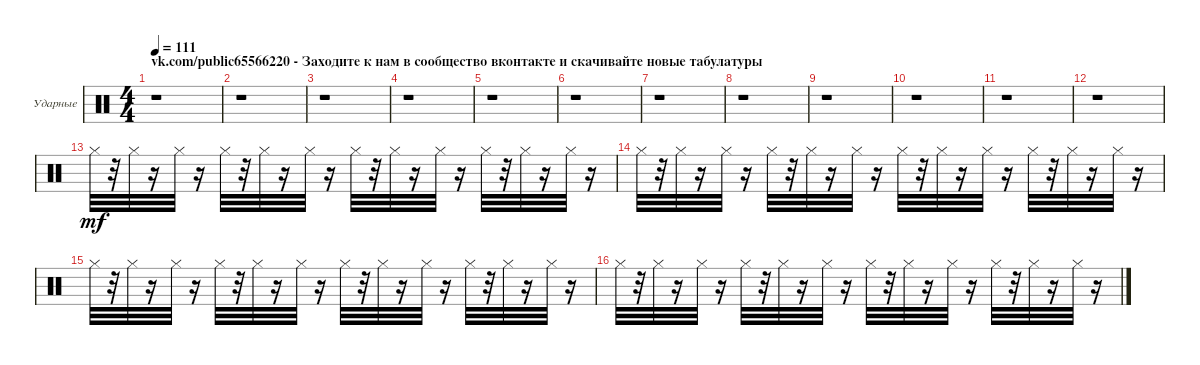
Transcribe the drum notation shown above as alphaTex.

\bracketExtendMode groupsimilarinstruments
\firstSystemTrackNameOrientation horizontal
\otherSystemsTrackNameOrientation horizontal
\track ("Ударные" "Ударные") {instrument percussion}
\staff {score}
\articulation defaults
\ts (4 4)
\section ("" "vk.com/public65566220 - Заходите к нам в сообщество вконтакте и скачивайте новые табулатуры")
\tempo 111
\clef neutral
\ks c
r.1{dy mf} |
r.1 |
r.1 |
r.1 |
r.1 |
r.1 |
r.1 |
r.1 |
r.1 |
r.1 |
r.1 |
r.1 |
"Hi-Hat (closed)".32 r.32 "Hi-Hat (closed)".32 r.16 "Hi-Hat (closed)".32 r.16 "Hi-Hat (closed)".32 r.32 "Hi-Hat (closed)".32 r.16 "Hi-Hat (closed)".32 r.16 "Hi-Hat (closed)".32 r.32 "Hi-Hat (closed)".32 r.16 "Hi-Hat (closed)".32 r.16 "Hi-Hat (closed)".32 r.32 "Hi-Hat (closed)".32 r.16 "Hi-Hat (closed)".32 r.16 |
"Hi-Hat (closed)".32 r.32 "Hi-Hat (closed)".32 r.16 "Hi-Hat (closed)".32 r.16 "Hi-Hat (closed)".32 r.32 "Hi-Hat (closed)".32 r.16 "Hi-Hat (closed)".32 r.16 "Hi-Hat (closed)".32 r.32 "Hi-Hat (closed)".32 r.16 "Hi-Hat (closed)".32 r.16 "Hi-Hat (closed)".32 r.32 "Hi-Hat (closed)".32 r.16 "Hi-Hat (closed)".32 r.16 |
"Hi-Hat (closed)".32 r.32 "Hi-Hat (closed)".32 r.16 "Hi-Hat (closed)".32 r.16 "Hi-Hat (closed)".32 r.32 "Hi-Hat (closed)".32 r.16 "Hi-Hat (closed)".32 r.16 "Hi-Hat (closed)".32 r.32 "Hi-Hat (closed)".32 r.16 "Hi-Hat (closed)".32 r.16 "Hi-Hat (closed)".32 r.32 "Hi-Hat (closed)".32 r.16 "Hi-Hat (closed)".32 r.16 |
"Hi-Hat (closed)".32 r.32 "Hi-Hat (closed)".32 r.16 "Hi-Hat (closed)".32 r.16 "Hi-Hat (closed)".32 r.32 "Hi-Hat (closed)".32 r.16 "Hi-Hat (closed)".32 r.16 "Hi-Hat (closed)".32 r.32 "Hi-Hat (closed)".32 r.16 "Hi-Hat (closed)".32 r.16 "Hi-Hat (closed)".32 r.32 "Hi-Hat (closed)".32 r.16 "Hi-Hat (closed)".32 r.16
